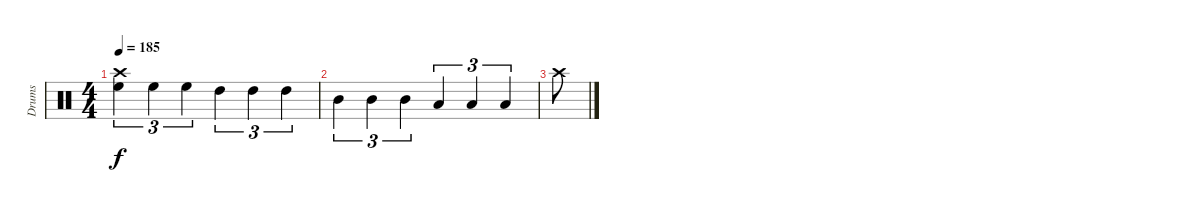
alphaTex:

\track ("Drums" "Drums") {instrument percussion}
\staff {score}
\articulation defaults
\ts (4 4)
\tempo 185
\clef neutral
\ks c
("Crash high (hit)" "High Floor Tom (hit)").4{tu (3 2) dy f} "High Floor Tom (hit)".4{tu (3 2)} "High Floor Tom (hit)".4{tu (3 2)} "High Tom (hit)".4{tu (3 2)} "High Tom (hit)".4{tu (3 2)} "High Tom (hit)".4{tu (3 2)} |
"Mid Tom (hit)".4{tu (3 2)} "Mid Tom (hit)".4{tu (3 2)} "Mid Tom (hit)".4{tu (3 2)} "Low Tom (hit)".4{tu (3 2)} "Low Tom (hit)".4{tu (3 2)} "Low Tom (hit)".4{tu (3 2)} |
"Crash high (hit)".8
